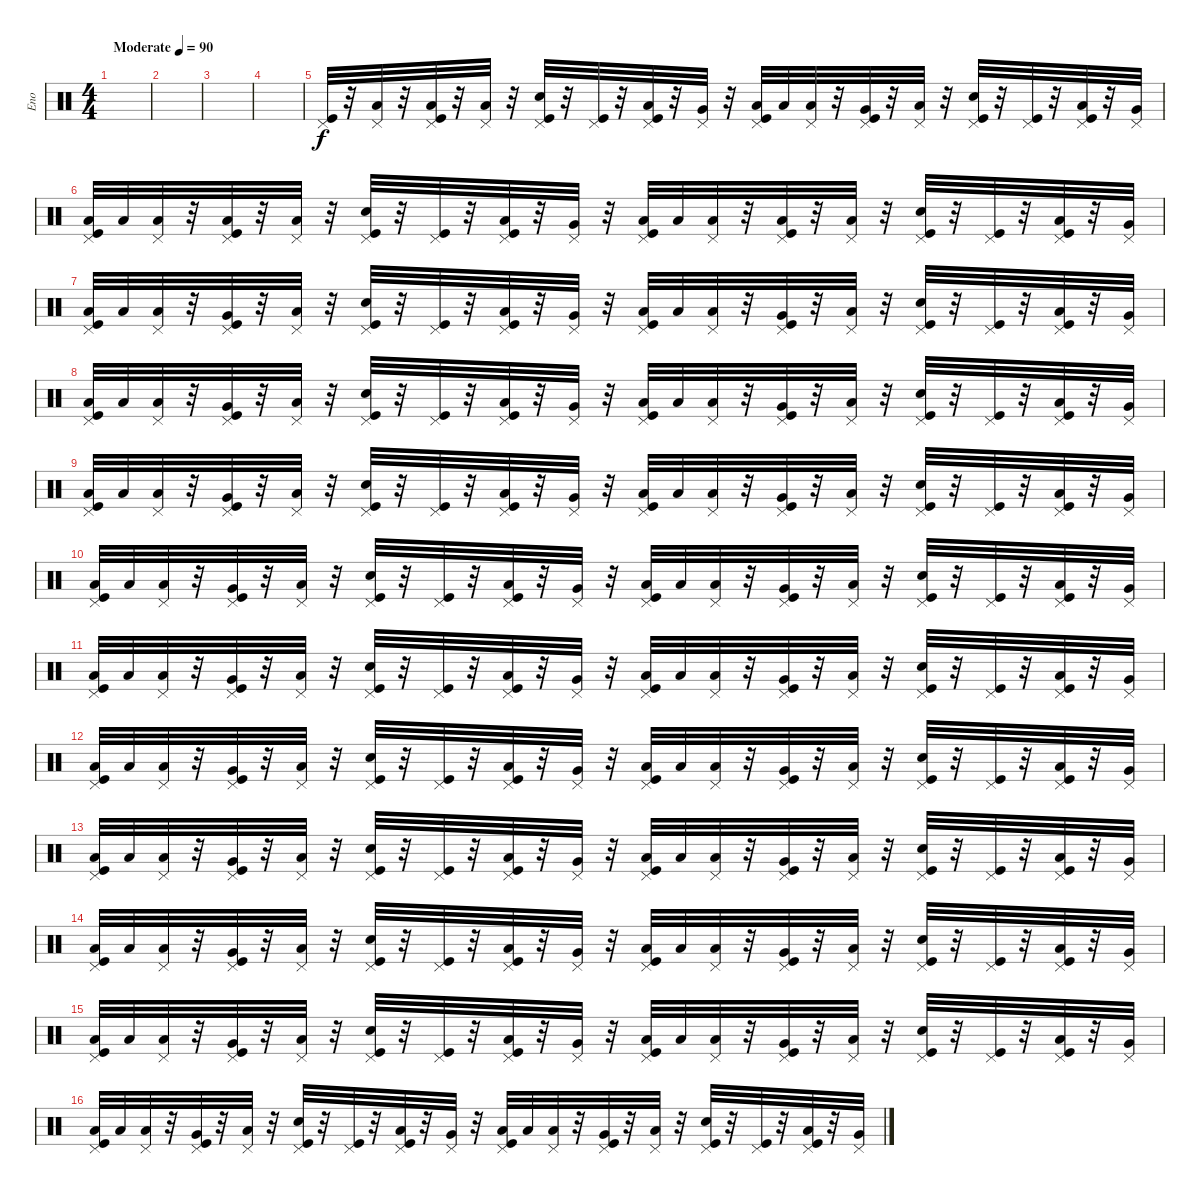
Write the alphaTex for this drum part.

\track ("Eno" "Eno") {instrument percussion}
\staff {score}
\articulation defaults
\ts (4 4)
\tempo (90 "Moderate")
\clef neutral
\ks c
|
|
|
|
("Pedal Hi-Hat (hit)" "Kick (hit)").32 r.32 ("Pedal Hi-Hat (hit)" "Low Tom (hit)").32 r.32 ("Pedal Hi-Hat (hit)" "Low Tom (hit)" "Kick (hit)").32 r.32 ("Pedal Hi-Hat (hit)" "Low Floor Tom (hit)").32 r.32 ("Pedal Hi-Hat (hit)" "Electric Snare (hit)" "Kick (hit)").32 r.32 ("Pedal Hi-Hat (hit)" "Kick (hit)").32 r.32 ("Pedal Hi-Hat (hit)" "Low Tom (hit)" "Kick (hit)").32 r.32 ("Pedal Hi-Hat (hit)" "Very Low Tom (hit)").32 r.32 ("Pedal Hi-Hat (hit)" "Low Floor Tom (hit)" "Kick (hit)").32 "Low Floor Tom (hit)".32 ("Pedal Hi-Hat (hit)" "Low Floor Tom (hit)").32 r.32 ("Pedal Hi-Hat (hit)" "Very Low Tom (hit)" "Kick (hit)").32 r.32 ("Pedal Hi-Hat (hit)" "Low Floor Tom (hit)").32 r.32 ("Pedal Hi-Hat (hit)" "Electric Snare (hit)" "Kick (hit)").32 r.32 ("Pedal Hi-Hat (hit)" "Kick (hit)").32 r.32 ("Pedal Hi-Hat (hit)" "Low Tom (hit)" "Kick (hit)").32 r.32 ("Pedal Hi-Hat (hit)" "Very Low Tom (hit)").32 |
("Pedal Hi-Hat (hit)" "Low Floor Tom (hit)" "Kick (hit)").32 "Low Floor Tom (hit)".32 ("Pedal Hi-Hat (hit)" "Low Floor Tom (hit)").32 r.32 ("Pedal Hi-Hat (hit)" "Low Tom (hit)" "Kick (hit)").32 r.32 ("Pedal Hi-Hat (hit)" "Low Floor Tom (hit)").32 r.32 ("Pedal Hi-Hat (hit)" "Electric Snare (hit)" "Kick (hit)").32 r.32 ("Pedal Hi-Hat (hit)" "Kick (hit)").32 r.32 ("Pedal Hi-Hat (hit)" "Low Tom (hit)" "Kick (hit)").32 r.32 ("Pedal Hi-Hat (hit)" "Very Low Tom (hit)").32 r.32 ("Pedal Hi-Hat (hit)" "Low Floor Tom (hit)" "Kick (hit)").32 "Low Floor Tom (hit)".32 ("Pedal Hi-Hat (hit)" "Low Floor Tom (hit)").32 r.32 ("Pedal Hi-Hat (hit)" "Low Tom (hit)" "Kick (hit)").32 r.32 ("Pedal Hi-Hat (hit)" "Low Floor Tom (hit)").32 r.32 ("Pedal Hi-Hat (hit)" "Electric Snare (hit)" "Kick (hit)").32 r.32 ("Pedal Hi-Hat (hit)" "Kick (hit)").32 r.32 ("Pedal Hi-Hat (hit)" "Low Tom (hit)" "Kick (hit)").32 r.32 ("Pedal Hi-Hat (hit)" "Very Low Tom (hit)").32 |
("Pedal Hi-Hat (hit)" "Low Floor Tom (hit)" "Kick (hit)").32 "Low Floor Tom (hit)".32 ("Pedal Hi-Hat (hit)" "Low Floor Tom (hit)").32 r.32 ("Pedal Hi-Hat (hit)" "Very Low Tom (hit)" "Kick (hit)").32 r.32 ("Pedal Hi-Hat (hit)" "Low Floor Tom (hit)").32 r.32 ("Pedal Hi-Hat (hit)" "Electric Snare (hit)" "Kick (hit)").32 r.32 ("Pedal Hi-Hat (hit)" "Kick (hit)").32 r.32 ("Pedal Hi-Hat (hit)" "Low Tom (hit)" "Kick (hit)").32 r.32 ("Pedal Hi-Hat (hit)" "Very Low Tom (hit)").32 r.32 ("Pedal Hi-Hat (hit)" "Low Floor Tom (hit)" "Kick (hit)").32 "Low Floor Tom (hit)".32 ("Pedal Hi-Hat (hit)" "Low Floor Tom (hit)").32 r.32 ("Pedal Hi-Hat (hit)" "Very Low Tom (hit)" "Kick (hit)").32 r.32 ("Pedal Hi-Hat (hit)" "Low Floor Tom (hit)").32 r.32 ("Pedal Hi-Hat (hit)" "Electric Snare (hit)" "Kick (hit)").32 r.32 ("Pedal Hi-Hat (hit)" "Kick (hit)").32 r.32 ("Pedal Hi-Hat (hit)" "Low Tom (hit)" "Kick (hit)").32 r.32 ("Pedal Hi-Hat (hit)" "Very Low Tom (hit)").32 |
("Pedal Hi-Hat (hit)" "Low Floor Tom (hit)" "Kick (hit)").32 "Low Floor Tom (hit)".32 ("Pedal Hi-Hat (hit)" "Low Floor Tom (hit)").32 r.32 ("Pedal Hi-Hat (hit)" "Very Low Tom (hit)" "Kick (hit)").32 r.32 ("Pedal Hi-Hat (hit)" "Low Floor Tom (hit)").32 r.32 ("Pedal Hi-Hat (hit)" "Electric Snare (hit)" "Kick (hit)").32 r.32 ("Pedal Hi-Hat (hit)" "Kick (hit)").32 r.32 ("Pedal Hi-Hat (hit)" "Low Tom (hit)" "Kick (hit)").32 r.32 ("Pedal Hi-Hat (hit)" "Very Low Tom (hit)").32 r.32 ("Pedal Hi-Hat (hit)" "Low Floor Tom (hit)" "Kick (hit)").32 "Low Floor Tom (hit)".32 ("Pedal Hi-Hat (hit)" "Low Floor Tom (hit)").32 r.32 ("Pedal Hi-Hat (hit)" "Very Low Tom (hit)" "Kick (hit)").32 r.32 ("Pedal Hi-Hat (hit)" "Low Floor Tom (hit)").32 r.32 ("Pedal Hi-Hat (hit)" "Electric Snare (hit)" "Kick (hit)").32 r.32 ("Pedal Hi-Hat (hit)" "Kick (hit)").32 r.32 ("Pedal Hi-Hat (hit)" "Low Tom (hit)" "Kick (hit)").32 r.32 ("Pedal Hi-Hat (hit)" "Very Low Tom (hit)").32 |
("Pedal Hi-Hat (hit)" "Low Floor Tom (hit)" "Kick (hit)").32 "Low Floor Tom (hit)".32 ("Pedal Hi-Hat (hit)" "Low Floor Tom (hit)").32 r.32 ("Pedal Hi-Hat (hit)" "Very Low Tom (hit)" "Kick (hit)").32 r.32 ("Pedal Hi-Hat (hit)" "Low Floor Tom (hit)").32 r.32 ("Pedal Hi-Hat (hit)" "Electric Snare (hit)" "Kick (hit)").32 r.32 ("Pedal Hi-Hat (hit)" "Kick (hit)").32 r.32 ("Pedal Hi-Hat (hit)" "Low Tom (hit)" "Kick (hit)").32 r.32 ("Pedal Hi-Hat (hit)" "Very Low Tom (hit)").32 r.32 ("Pedal Hi-Hat (hit)" "Low Floor Tom (hit)" "Kick (hit)").32 "Low Floor Tom (hit)".32 ("Pedal Hi-Hat (hit)" "Low Floor Tom (hit)").32 r.32 ("Pedal Hi-Hat (hit)" "Very Low Tom (hit)" "Kick (hit)").32 r.32 ("Pedal Hi-Hat (hit)" "Low Floor Tom (hit)").32 r.32 ("Pedal Hi-Hat (hit)" "Electric Snare (hit)" "Kick (hit)").32 r.32 ("Pedal Hi-Hat (hit)" "Kick (hit)").32 r.32 ("Pedal Hi-Hat (hit)" "Low Tom (hit)" "Kick (hit)").32 r.32 ("Pedal Hi-Hat (hit)" "Very Low Tom (hit)").32 |
("Pedal Hi-Hat (hit)" "Low Floor Tom (hit)" "Kick (hit)").32 "Low Floor Tom (hit)".32 ("Pedal Hi-Hat (hit)" "Low Floor Tom (hit)").32 r.32 ("Pedal Hi-Hat (hit)" "Very Low Tom (hit)" "Kick (hit)").32 r.32 ("Pedal Hi-Hat (hit)" "Low Floor Tom (hit)").32 r.32 ("Pedal Hi-Hat (hit)" "Electric Snare (hit)" "Kick (hit)").32 r.32 ("Pedal Hi-Hat (hit)" "Kick (hit)").32 r.32 ("Pedal Hi-Hat (hit)" "Low Tom (hit)" "Kick (hit)").32 r.32 ("Pedal Hi-Hat (hit)" "Very Low Tom (hit)").32 r.32 ("Pedal Hi-Hat (hit)" "Low Floor Tom (hit)" "Kick (hit)").32 "Low Floor Tom (hit)".32 ("Pedal Hi-Hat (hit)" "Low Floor Tom (hit)").32 r.32 ("Pedal Hi-Hat (hit)" "Very Low Tom (hit)" "Kick (hit)").32 r.32 ("Pedal Hi-Hat (hit)" "Low Floor Tom (hit)").32 r.32 ("Pedal Hi-Hat (hit)" "Electric Snare (hit)" "Kick (hit)").32 r.32 ("Pedal Hi-Hat (hit)" "Kick (hit)").32 r.32 ("Pedal Hi-Hat (hit)" "Low Tom (hit)" "Kick (hit)").32 r.32 ("Pedal Hi-Hat (hit)" "Very Low Tom (hit)").32 |
("Pedal Hi-Hat (hit)" "Low Floor Tom (hit)" "Kick (hit)").32 "Low Floor Tom (hit)".32 ("Pedal Hi-Hat (hit)" "Low Floor Tom (hit)").32 r.32 ("Pedal Hi-Hat (hit)" "Very Low Tom (hit)" "Kick (hit)").32 r.32 ("Pedal Hi-Hat (hit)" "Low Floor Tom (hit)").32 r.32 ("Pedal Hi-Hat (hit)" "Electric Snare (hit)" "Kick (hit)").32 r.32 ("Pedal Hi-Hat (hit)" "Kick (hit)").32 r.32 ("Pedal Hi-Hat (hit)" "Low Tom (hit)" "Kick (hit)").32 r.32 ("Pedal Hi-Hat (hit)" "Very Low Tom (hit)").32 r.32 ("Pedal Hi-Hat (hit)" "Low Floor Tom (hit)" "Kick (hit)").32 "Low Floor Tom (hit)".32 ("Pedal Hi-Hat (hit)" "Low Floor Tom (hit)").32 r.32 ("Pedal Hi-Hat (hit)" "Very Low Tom (hit)" "Kick (hit)").32 r.32 ("Pedal Hi-Hat (hit)" "Low Floor Tom (hit)").32 r.32 ("Pedal Hi-Hat (hit)" "Electric Snare (hit)" "Kick (hit)").32 r.32 ("Pedal Hi-Hat (hit)" "Kick (hit)").32 r.32 ("Pedal Hi-Hat (hit)" "Low Tom (hit)" "Kick (hit)").32 r.32 ("Pedal Hi-Hat (hit)" "Very Low Tom (hit)").32 |
("Pedal Hi-Hat (hit)" "Low Floor Tom (hit)" "Kick (hit)").32 "Low Floor Tom (hit)".32 ("Pedal Hi-Hat (hit)" "Low Floor Tom (hit)").32 r.32 ("Pedal Hi-Hat (hit)" "Very Low Tom (hit)" "Kick (hit)").32 r.32 ("Pedal Hi-Hat (hit)" "Low Floor Tom (hit)").32 r.32 ("Pedal Hi-Hat (hit)" "Electric Snare (hit)" "Kick (hit)").32 r.32 ("Pedal Hi-Hat (hit)" "Kick (hit)").32 r.32 ("Pedal Hi-Hat (hit)" "Low Tom (hit)" "Kick (hit)").32 r.32 ("Pedal Hi-Hat (hit)" "Very Low Tom (hit)").32 r.32 ("Pedal Hi-Hat (hit)" "Low Floor Tom (hit)" "Kick (hit)").32 "Low Floor Tom (hit)".32 ("Pedal Hi-Hat (hit)" "Low Floor Tom (hit)").32 r.32 ("Pedal Hi-Hat (hit)" "Very Low Tom (hit)" "Kick (hit)").32 r.32 ("Pedal Hi-Hat (hit)" "Low Floor Tom (hit)").32 r.32 ("Pedal Hi-Hat (hit)" "Electric Snare (hit)" "Kick (hit)").32 r.32 ("Pedal Hi-Hat (hit)" "Kick (hit)").32 r.32 ("Pedal Hi-Hat (hit)" "Low Tom (hit)" "Kick (hit)").32 r.32 ("Pedal Hi-Hat (hit)" "Very Low Tom (hit)").32 |
("Pedal Hi-Hat (hit)" "Low Floor Tom (hit)" "Kick (hit)").32 "Low Floor Tom (hit)".32 ("Pedal Hi-Hat (hit)" "Low Floor Tom (hit)").32 r.32 ("Pedal Hi-Hat (hit)" "Very Low Tom (hit)" "Kick (hit)").32 r.32 ("Pedal Hi-Hat (hit)" "Low Floor Tom (hit)").32 r.32 ("Pedal Hi-Hat (hit)" "Electric Snare (hit)" "Kick (hit)").32 r.32 ("Pedal Hi-Hat (hit)" "Kick (hit)").32 r.32 ("Pedal Hi-Hat (hit)" "Low Tom (hit)" "Kick (hit)").32 r.32 ("Pedal Hi-Hat (hit)" "Very Low Tom (hit)").32 r.32 ("Pedal Hi-Hat (hit)" "Low Floor Tom (hit)" "Kick (hit)").32 "Low Floor Tom (hit)".32 ("Pedal Hi-Hat (hit)" "Low Floor Tom (hit)").32 r.32 ("Pedal Hi-Hat (hit)" "Very Low Tom (hit)" "Kick (hit)").32 r.32 ("Pedal Hi-Hat (hit)" "Low Floor Tom (hit)").32 r.32 ("Pedal Hi-Hat (hit)" "Electric Snare (hit)" "Kick (hit)").32 r.32 ("Pedal Hi-Hat (hit)" "Kick (hit)").32 r.32 ("Pedal Hi-Hat (hit)" "Low Tom (hit)" "Kick (hit)").32 r.32 ("Pedal Hi-Hat (hit)" "Very Low Tom (hit)").32 |
("Pedal Hi-Hat (hit)" "Low Floor Tom (hit)" "Kick (hit)").32 "Low Floor Tom (hit)".32 ("Pedal Hi-Hat (hit)" "Low Floor Tom (hit)").32 r.32 ("Pedal Hi-Hat (hit)" "Very Low Tom (hit)" "Kick (hit)").32 r.32 ("Pedal Hi-Hat (hit)" "Low Floor Tom (hit)").32 r.32 ("Pedal Hi-Hat (hit)" "Electric Snare (hit)" "Kick (hit)").32 r.32 ("Pedal Hi-Hat (hit)" "Kick (hit)").32 r.32 ("Pedal Hi-Hat (hit)" "Low Tom (hit)" "Kick (hit)").32 r.32 ("Pedal Hi-Hat (hit)" "Very Low Tom (hit)").32 r.32 ("Pedal Hi-Hat (hit)" "Low Floor Tom (hit)" "Kick (hit)").32 "Low Floor Tom (hit)".32 ("Pedal Hi-Hat (hit)" "Low Floor Tom (hit)").32 r.32 ("Pedal Hi-Hat (hit)" "Very Low Tom (hit)" "Kick (hit)").32 r.32 ("Pedal Hi-Hat (hit)" "Low Floor Tom (hit)").32 r.32 ("Pedal Hi-Hat (hit)" "Electric Snare (hit)" "Kick (hit)").32 r.32 ("Pedal Hi-Hat (hit)" "Kick (hit)").32 r.32 ("Pedal Hi-Hat (hit)" "Low Tom (hit)" "Kick (hit)").32 r.32 ("Pedal Hi-Hat (hit)" "Very Low Tom (hit)").32 |
("Pedal Hi-Hat (hit)" "Low Floor Tom (hit)" "Kick (hit)").32 "Low Floor Tom (hit)".32 ("Pedal Hi-Hat (hit)" "Low Floor Tom (hit)").32 r.32 ("Pedal Hi-Hat (hit)" "Very Low Tom (hit)" "Kick (hit)").32 r.32 ("Pedal Hi-Hat (hit)" "Low Floor Tom (hit)").32 r.32 ("Pedal Hi-Hat (hit)" "Electric Snare (hit)" "Kick (hit)").32 r.32 ("Pedal Hi-Hat (hit)" "Kick (hit)").32 r.32 ("Pedal Hi-Hat (hit)" "Low Tom (hit)" "Kick (hit)").32 r.32 ("Pedal Hi-Hat (hit)" "Very Low Tom (hit)").32 r.32 ("Pedal Hi-Hat (hit)" "Low Floor Tom (hit)" "Kick (hit)").32 "Low Floor Tom (hit)".32 ("Pedal Hi-Hat (hit)" "Low Floor Tom (hit)").32 r.32 ("Pedal Hi-Hat (hit)" "Very Low Tom (hit)" "Kick (hit)").32 r.32 ("Pedal Hi-Hat (hit)" "Low Floor Tom (hit)").32 r.32 ("Pedal Hi-Hat (hit)" "Electric Snare (hit)" "Kick (hit)").32 r.32 ("Pedal Hi-Hat (hit)" "Kick (hit)").32 r.32 ("Pedal Hi-Hat (hit)" "Low Tom (hit)" "Kick (hit)").32 r.32 ("Pedal Hi-Hat (hit)" "Very Low Tom (hit)").32 |
("Pedal Hi-Hat (hit)" "Low Floor Tom (hit)" "Kick (hit)").32 "Low Floor Tom (hit)".32 ("Pedal Hi-Hat (hit)" "Low Floor Tom (hit)").32 r.32 ("Pedal Hi-Hat (hit)" "Very Low Tom (hit)" "Kick (hit)").32 r.32 ("Pedal Hi-Hat (hit)" "Low Floor Tom (hit)").32 r.32 ("Pedal Hi-Hat (hit)" "Electric Snare (hit)" "Kick (hit)").32 r.32 ("Pedal Hi-Hat (hit)" "Kick (hit)").32 r.32 ("Pedal Hi-Hat (hit)" "Low Tom (hit)" "Kick (hit)").32 r.32 ("Pedal Hi-Hat (hit)" "Very Low Tom (hit)").32 r.32 ("Pedal Hi-Hat (hit)" "Low Floor Tom (hit)" "Kick (hit)").32 "Low Floor Tom (hit)".32 ("Pedal Hi-Hat (hit)" "Low Floor Tom (hit)").32 r.32 ("Pedal Hi-Hat (hit)" "Very Low Tom (hit)" "Kick (hit)").32 r.32 ("Pedal Hi-Hat (hit)" "Low Floor Tom (hit)").32 r.32 ("Pedal Hi-Hat (hit)" "Electric Snare (hit)" "Kick (hit)").32 r.32 ("Pedal Hi-Hat (hit)" "Kick (hit)").32 r.32 ("Pedal Hi-Hat (hit)" "Low Tom (hit)" "Kick (hit)").32 r.32 ("Pedal Hi-Hat (hit)" "Very Low Tom (hit)").32
